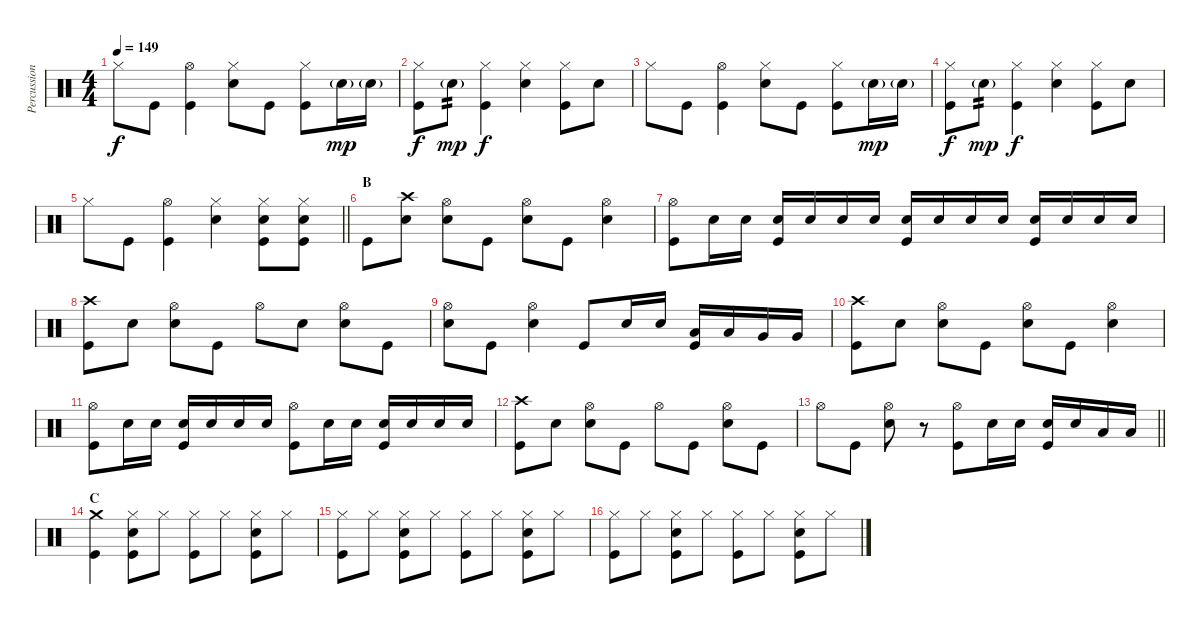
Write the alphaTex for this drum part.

\track ("Percussions" "Percussion") {instrument percussion}
\staff {score}
\articulation defaults
\ts (4 4)
\tempo 149
\clef neutral
\ks c "Hi-Hat (closed)".8{dy f} "Kick (hit)".8
("Hi-Hat (open)" "Kick (hit)").4 ("Hi-Hat (closed)" "Electric Snare (hit)").8 "Kick (hit)".8 ("Hi-Hat (closed)" "Kick (hit)").8 "Electric Snare (hit)"{g}.16{dy mp} "Electric Snare (hit)"{g}.16 |
("Hi-Hat (closed)" "Kick (hit)").8{dy f} "Electric Snare (hit)"{g}.8{tp 2 dy mp} ("Hi-Hat (closed)" "Kick (hit)").4{dy f} ("Hi-Hat (closed)" "Electric Snare (hit)").4 ("Hi-Hat (closed)" "Kick (hit)").8 "Electric Snare (hit)".8 |
"Hi-Hat (closed)".8 "Kick (hit)".8 ("Hi-Hat (open)" "Kick (hit)").4 ("Hi-Hat (closed)" "Electric Snare (hit)").8 "Kick (hit)".8 ("Hi-Hat (closed)" "Kick (hit)").8 "Electric Snare (hit)"{g}.16{dy mp} "Electric Snare (hit)"{g}.16 |
("Hi-Hat (closed)" "Kick (hit)").8{dy f} "Electric Snare (hit)"{g}.8{tp 2 dy mp} ("Hi-Hat (closed)" "Kick (hit)").4{dy f} ("Hi-Hat (closed)" "Electric Snare (hit)").4 ("Hi-Hat (closed)" "Kick (hit)").8 "Electric Snare (hit)".8 |
\barLineRight lightlight "Hi-Hat (closed)".8 "Kick (hit)".8
("Hi-Hat (open)" "Kick (hit)").4 ("Hi-Hat (closed)" "Electric Snare (hit)").4 ("Hi-Hat (closed)" "Electric Snare (hit)" "Kick (hit)").8 ("Hi-Hat (closed)" "Electric Snare (hit)" "Kick (hit)").8 |
\section ("" "B")
"Kick (hit)".8 ("Crash high (hit)" "Electric Snare (hit)").8 ("Hi-Hat (open)" "Electric Snare (hit)").8 "Kick (hit)".8 ("Hi-Hat (open)" "Electric Snare (hit)").8 "Kick (hit)".8 ("Hi-Hat (open)" "Electric Snare (hit)").4 |
("Hi-Hat (open)" "Kick (hit)").8 "Electric Snare (hit)".16 "Electric Snare (hit)".16 ("Electric Snare (hit)" "Kick (hit)").16 "Electric Snare (hit)".16 "Electric Snare (hit)".16 "Electric Snare (hit)".16 ("Electric Snare (hit)" "Kick (hit)").16 "Electric Snare (hit)".16 "Electric Snare (hit)".16 "Electric Snare (hit)".16 ("Electric Snare (hit)" "Kick (hit)").16 "Electric Snare (hit)".16 "Electric Snare (hit)".16 "Electric Snare (hit)".16 |
("Crash high (hit)" "Kick (hit)").8 "Electric Snare (hit)".8 ("Hi-Hat (open)" "Electric Snare (hit)").8 "Kick (hit)".8 "Hi-Hat (open)".8 "Electric Snare (hit)".8 ("Hi-Hat (open)" "Electric Snare (hit)").8 "Kick (hit)".8 |
("Hi-Hat (open)" "Electric Snare (hit)").8 "Kick (hit)".8 ("Hi-Hat (open)" "Electric Snare (hit)").4 "Kick (hit)".8 "Electric Snare (hit)".16 "Electric Snare (hit)".16 ("Low Tom (hit)" "Kick (hit)").16 "Low Tom (hit)".16 "Very Low Tom (hit)".16 "Very Low Tom (hit)".16 |
("Crash high (hit)" "Kick (hit)").8 "Electric Snare (hit)".8 ("Hi-Hat (open)" "Electric Snare (hit)").8 "Kick (hit)".8 ("Hi-Hat (open)" "Electric Snare (hit)").8 "Kick (hit)".8 ("Hi-Hat (open)" "Electric Snare (hit)").4 |
("Hi-Hat (open)" "Kick (hit)").8 "Electric Snare (hit)".16 "Electric Snare (hit)".16 ("Electric Snare (hit)" "Kick (hit)").16 "Electric Snare (hit)".16 "Electric Snare (hit)".16 "Electric Snare (hit)".16 ("Hi-Hat (open)" "Kick (hit)").8 "Electric Snare (hit)".16 "Electric Snare (hit)".16 ("Electric Snare (hit)" "Kick (hit)").16 "Electric Snare (hit)".16 "Electric Snare (hit)".16 "Electric Snare (hit)".16 |
("Crash high (hit)" "Kick (hit)").8 "Electric Snare (hit)".8 ("Hi-Hat (open)" "Electric Snare (hit)").8 "Kick (hit)".8 "Hi-Hat (open)".8 "Kick (hit)".8 ("Hi-Hat (open)" "Electric Snare (hit)").8 "Kick (hit)".8 |
\barLineRight lightlight "Hi-Hat (open)".8 "Kick (hit)".8
("Hi-Hat (open)" "Electric Snare (hit)").8 r.8 ("Hi-Hat (open)" "Kick (hit)").8 "Electric Snare (hit)".16 "Electric Snare (hit)".16 ("Electric Snare (hit)" "Kick (hit)").16 "Electric Snare (hit)".16 "Low Tom (hit)".16 "Low Tom (hit)".16 |
\section ("" "C")
("Crash medium (hit)" "Kick (hit)").4 ("Hi-Hat (closed)" "Electric Snare (hit)" "Kick (hit)").8 "Hi-Hat (closed)".8 ("Hi-Hat (closed)" "Kick (hit)").8 "Hi-Hat (closed)".8 ("Hi-Hat (closed)" "Electric Snare (hit)" "Kick (hit)").8 "Hi-Hat (closed)".8 |
("Hi-Hat (closed)" "Kick (hit)").8 "Hi-Hat (closed)".8 ("Hi-Hat (closed)" "Electric Snare (hit)" "Kick (hit)").8 "Hi-Hat (closed)".8 ("Hi-Hat (closed)" "Kick (hit)").8 "Hi-Hat (closed)".8 ("Hi-Hat (closed)" "Electric Snare (hit)" "Kick (hit)").8 "Hi-Hat (closed)".8 |
("Hi-Hat (closed)" "Kick (hit)").8 "Hi-Hat (closed)".8 ("Hi-Hat (closed)" "Electric Snare (hit)" "Kick (hit)").8 "Hi-Hat (closed)".8 ("Hi-Hat (closed)" "Kick (hit)").8 "Hi-Hat (closed)".8 ("Hi-Hat (closed)" "Electric Snare (hit)" "Kick (hit)").8 "Hi-Hat (closed)".8
